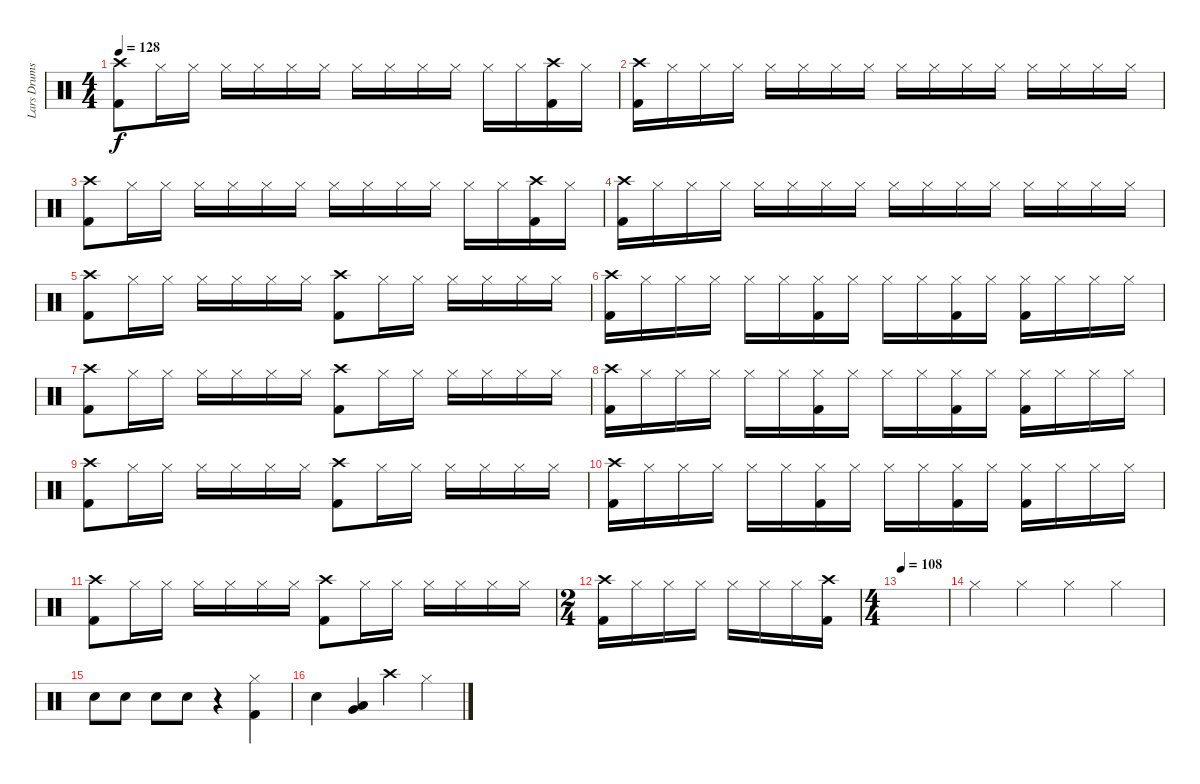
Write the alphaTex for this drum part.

\track ("Lars Drums" "Lars Drums") {instrument percussion}
\staff {score}
\articulation defaults
\ts (4 4)
\tempo 128
\clef neutral
\ks c
("Crash high (hit)" "Kick (hit) 2").8{dy f} "Hi-Hat (closed)".16 "Hi-Hat (closed)".16 "Hi-Hat (closed)".16 "Hi-Hat (closed)".16 "Hi-Hat (closed)".16 "Hi-Hat (closed)".16 "Hi-Hat (closed)".16 "Hi-Hat (closed)".16 "Hi-Hat (closed)".16 "Hi-Hat (closed)".16 "Hi-Hat (closed)".16 "Hi-Hat (closed)".16 ("Crash high (hit)" "Kick (hit) 2").16 "Hi-Hat (closed)".16 |
("Crash high (hit)" "Kick (hit) 2").16 "Hi-Hat (closed)".16 "Hi-Hat (closed)".16 "Hi-Hat (closed)".16 "Hi-Hat (closed)".16 "Hi-Hat (closed)".16 "Hi-Hat (closed)".16 "Hi-Hat (closed)".16 "Hi-Hat (closed)".16 "Hi-Hat (closed)".16 "Hi-Hat (closed)".16 "Hi-Hat (closed)".16 "Hi-Hat (closed)".16 "Hi-Hat (closed)".16 "Hi-Hat (closed)".16 "Hi-Hat (closed)".16 |
("Crash high (hit)" "Kick (hit) 2").8 "Hi-Hat (closed)".16 "Hi-Hat (closed)".16 "Hi-Hat (closed)".16 "Hi-Hat (closed)".16 "Hi-Hat (closed)".16 "Hi-Hat (closed)".16 "Hi-Hat (closed)".16 "Hi-Hat (closed)".16 "Hi-Hat (closed)".16 "Hi-Hat (closed)".16 "Hi-Hat (closed)".16 "Hi-Hat (closed)".16 ("Crash high (hit)" "Kick (hit) 2").16 "Hi-Hat (closed)".16 |
("Crash high (hit)" "Kick (hit) 2").16 "Hi-Hat (closed)".16 "Hi-Hat (closed)".16 "Hi-Hat (closed)".16 "Hi-Hat (closed)".16 "Hi-Hat (closed)".16 "Hi-Hat (closed)".16 "Hi-Hat (closed)".16 "Hi-Hat (closed)".16 "Hi-Hat (closed)".16 "Hi-Hat (closed)".16 "Hi-Hat (closed)".16 "Hi-Hat (closed)".16 "Hi-Hat (closed)".16 "Hi-Hat (closed)".16 "Hi-Hat (closed)".16 |
("Crash high (hit)" "Kick (hit) 2").8 "Hi-Hat (closed)".16 "Hi-Hat (closed)".16 "Hi-Hat (closed)".16 "Hi-Hat (closed)".16 "Hi-Hat (closed)".16 "Hi-Hat (closed)".16 ("Crash high (hit)" "Kick (hit) 2").8 "Hi-Hat (closed)".16 "Hi-Hat (closed)".16 "Hi-Hat (closed)".16 "Hi-Hat (closed)".16 "Hi-Hat (closed)".16 "Hi-Hat (closed)".16 |
("Crash high (hit)" "Kick (hit) 2").16 "Hi-Hat (closed)".16 "Hi-Hat (closed)".16 "Hi-Hat (closed)".16 "Hi-Hat (closed)".16 "Hi-Hat (closed)".16 ("Hi-Hat (closed)" "Kick (hit) 2").16 "Hi-Hat (closed)".16 "Hi-Hat (closed)".16 "Hi-Hat (closed)".16 ("Hi-Hat (closed)" "Kick (hit) 2").16 "Hi-Hat (closed)".16 ("Hi-Hat (closed)" "Kick (hit) 2").16 "Hi-Hat (closed)".16 "Hi-Hat (closed)".16 "Hi-Hat (closed)".16 |
("Crash high (hit)" "Kick (hit) 2").8 "Hi-Hat (closed)".16 "Hi-Hat (closed)".16 "Hi-Hat (closed)".16 "Hi-Hat (closed)".16 "Hi-Hat (closed)".16 "Hi-Hat (closed)".16 ("Crash high (hit)" "Kick (hit) 2").8 "Hi-Hat (closed)".16 "Hi-Hat (closed)".16 "Hi-Hat (closed)".16 "Hi-Hat (closed)".16 "Hi-Hat (closed)".16 "Hi-Hat (closed)".16 |
("Crash high (hit)" "Kick (hit) 2").16 "Hi-Hat (closed)".16 "Hi-Hat (closed)".16 "Hi-Hat (closed)".16 "Hi-Hat (closed)".16 "Hi-Hat (closed)".16 ("Hi-Hat (closed)" "Kick (hit) 2").16 "Hi-Hat (closed)".16 "Hi-Hat (closed)".16 "Hi-Hat (closed)".16 ("Hi-Hat (closed)" "Kick (hit) 2").16 "Hi-Hat (closed)".16 ("Hi-Hat (closed)" "Kick (hit) 2").16 "Hi-Hat (closed)".16 "Hi-Hat (closed)".16 "Hi-Hat (closed)".16 |
("Crash high (hit)" "Kick (hit) 2").8 "Hi-Hat (closed)".16 "Hi-Hat (closed)".16 "Hi-Hat (closed)".16 "Hi-Hat (closed)".16 "Hi-Hat (closed)".16 "Hi-Hat (closed)".16 ("Crash high (hit)" "Kick (hit) 2").8 "Hi-Hat (closed)".16 "Hi-Hat (closed)".16 "Hi-Hat (closed)".16 "Hi-Hat (closed)".16 "Hi-Hat (closed)".16 "Hi-Hat (closed)".16 |
("Crash high (hit)" "Kick (hit) 2").16 "Hi-Hat (closed)".16 "Hi-Hat (closed)".16 "Hi-Hat (closed)".16 "Hi-Hat (closed)".16 "Hi-Hat (closed)".16 ("Hi-Hat (closed)" "Kick (hit) 2").16 "Hi-Hat (closed)".16 "Hi-Hat (closed)".16 "Hi-Hat (closed)".16 ("Hi-Hat (closed)" "Kick (hit) 2").16 "Hi-Hat (closed)".16 ("Hi-Hat (closed)" "Kick (hit) 2").16 "Hi-Hat (closed)".16 "Hi-Hat (closed)".16 "Hi-Hat (closed)".16 |
("Crash high (hit)" "Kick (hit) 2").8 "Hi-Hat (closed)".16 "Hi-Hat (closed)".16 "Hi-Hat (closed)".16 "Hi-Hat (closed)".16 "Hi-Hat (closed)".16 "Hi-Hat (closed)".16 ("Crash high (hit)" "Kick (hit) 2").8 "Hi-Hat (closed)".16 "Hi-Hat (closed)".16 "Hi-Hat (closed)".16 "Hi-Hat (closed)".16 "Hi-Hat (closed)".16 "Hi-Hat (closed)".16 |
\ts (2 4)
("Crash high (hit)" "Kick (hit) 2").16 "Hi-Hat (closed)".16 "Hi-Hat (closed)".16 "Hi-Hat (closed)".16 "Hi-Hat (closed)".16 "Hi-Hat (closed)".16 "Hi-Hat (closed)".16 ("Crash high (hit)" "Kick (hit) 2").16 |
\ts (4 4)
\tempo 108
|
"Hi-Hat (closed)".4 "Hi-Hat (closed)".4 "Hi-Hat (closed)".4 "Hi-Hat (closed)".4 |
"Electric Snare (hit)".8 "Electric Snare (hit)".8 "Electric Snare (hit)".8 "Electric Snare (hit)".8 r.4 ("Hi-Hat (closed)" "Kick (hit) 2").4 |
"Electric Snare (hit)".4 ("Low Floor Tom (hit)" "Very Low Tom (hit)").4 "Crash high (hit)".4 "Hi-Hat (closed)".4
